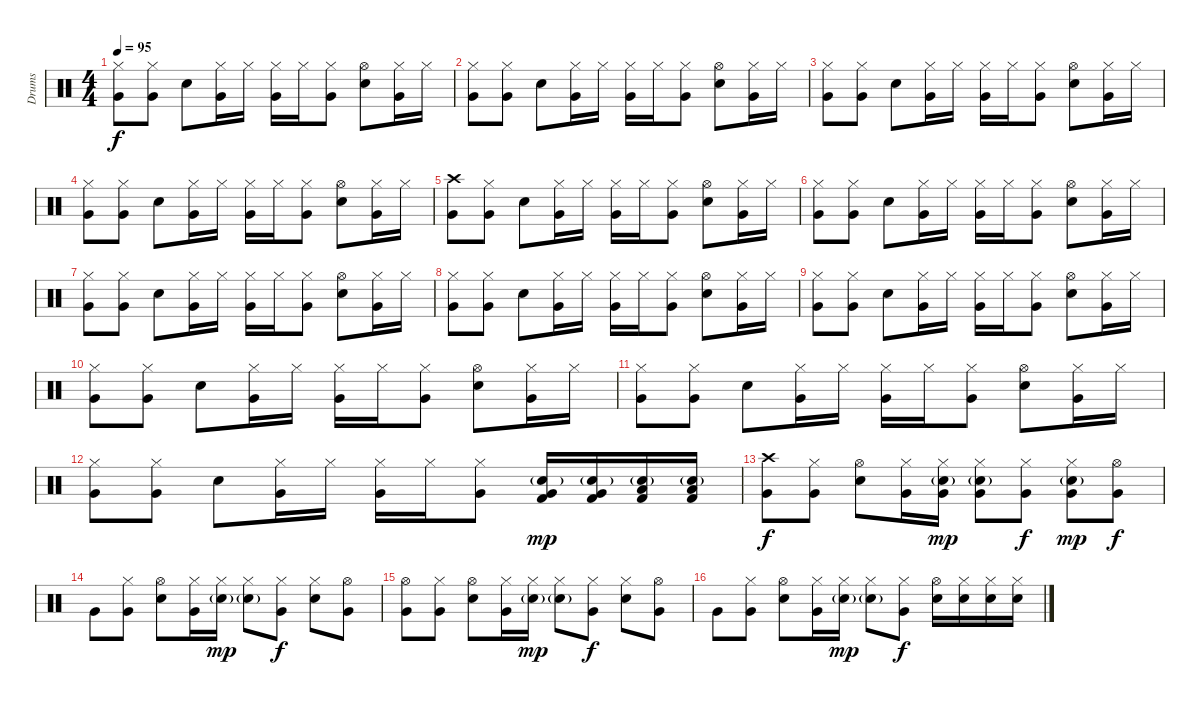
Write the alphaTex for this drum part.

\track ("Drums" "Drums") {instrument percussion}
\staff {score}
\articulation defaults
\ts (4 4)
\tempo 95
\clef neutral
\ks c
("Hi-Hat (closed)" "Very Low Tom (hit)").8{dy f} ("Hi-Hat (closed)" "Very Low Tom (hit)").8 "Electric Snare (hit)".8 ("Hi-Hat (closed)" "Very Low Tom (hit)").16 "Hi-Hat (closed)".16 ("Hi-Hat (closed)" "Very Low Tom (hit)").16 "Hi-Hat (closed)".16 ("Hi-Hat (closed)" "Very Low Tom (hit)").8 ("Hi-Hat (open)" "Electric Snare (hit)").8 ("Hi-Hat (closed)" "Very Low Tom (hit)").16 "Hi-Hat (closed)".16 |
("Hi-Hat (closed)" "Very Low Tom (hit)").8 ("Hi-Hat (closed)" "Very Low Tom (hit)").8 "Electric Snare (hit)".8 ("Hi-Hat (closed)" "Very Low Tom (hit)").16 "Hi-Hat (closed)".16 ("Hi-Hat (closed)" "Very Low Tom (hit)").16 "Hi-Hat (closed)".16 ("Hi-Hat (closed)" "Very Low Tom (hit)").8 ("Hi-Hat (open)" "Electric Snare (hit)").8 ("Hi-Hat (closed)" "Very Low Tom (hit)").16 "Hi-Hat (closed)".16 |
("Hi-Hat (closed)" "Very Low Tom (hit)").8 ("Hi-Hat (closed)" "Very Low Tom (hit)").8 "Electric Snare (hit)".8 ("Hi-Hat (closed)" "Very Low Tom (hit)").16 "Hi-Hat (closed)".16 ("Hi-Hat (closed)" "Very Low Tom (hit)").16 "Hi-Hat (closed)".16 ("Hi-Hat (closed)" "Very Low Tom (hit)").8 ("Hi-Hat (open)" "Electric Snare (hit)").8 ("Hi-Hat (closed)" "Very Low Tom (hit)").16 "Hi-Hat (closed)".16 |
("Hi-Hat (closed)" "Very Low Tom (hit)").8 ("Hi-Hat (closed)" "Very Low Tom (hit)").8 "Electric Snare (hit)".8 ("Hi-Hat (closed)" "Very Low Tom (hit)").16 "Hi-Hat (closed)".16 ("Hi-Hat (closed)" "Very Low Tom (hit)").16 "Hi-Hat (closed)".16 ("Hi-Hat (closed)" "Very Low Tom (hit)").8 ("Hi-Hat (open)" "Electric Snare (hit)").8 ("Hi-Hat (closed)" "Very Low Tom (hit)").16 "Hi-Hat (closed)".16 |
("Crash high (hit)" "Very Low Tom (hit)").8 ("Hi-Hat (closed)" "Very Low Tom (hit)").8 "Electric Snare (hit)".8 ("Hi-Hat (closed)" "Very Low Tom (hit)").16 "Hi-Hat (closed)".16 ("Hi-Hat (closed)" "Very Low Tom (hit)").16 "Hi-Hat (closed)".16 ("Hi-Hat (closed)" "Very Low Tom (hit)").8 ("Hi-Hat (open)" "Electric Snare (hit)").8 ("Hi-Hat (closed)" "Very Low Tom (hit)").16 "Hi-Hat (closed)".16 |
("Hi-Hat (closed)" "Very Low Tom (hit)").8 ("Hi-Hat (closed)" "Very Low Tom (hit)").8 "Electric Snare (hit)".8 ("Hi-Hat (closed)" "Very Low Tom (hit)").16 "Hi-Hat (closed)".16 ("Hi-Hat (closed)" "Very Low Tom (hit)").16 "Hi-Hat (closed)".16 ("Hi-Hat (closed)" "Very Low Tom (hit)").8 ("Hi-Hat (open)" "Electric Snare (hit)").8 ("Hi-Hat (closed)" "Very Low Tom (hit)").16 "Hi-Hat (closed)".16 |
("Hi-Hat (closed)" "Very Low Tom (hit)").8 ("Hi-Hat (closed)" "Very Low Tom (hit)").8 "Electric Snare (hit)".8 ("Hi-Hat (closed)" "Very Low Tom (hit)").16 "Hi-Hat (closed)".16 ("Hi-Hat (closed)" "Very Low Tom (hit)").16 "Hi-Hat (closed)".16 ("Hi-Hat (closed)" "Very Low Tom (hit)").8 ("Hi-Hat (open)" "Electric Snare (hit)").8 ("Hi-Hat (closed)" "Very Low Tom (hit)").16 "Hi-Hat (closed)".16 |
("Hi-Hat (closed)" "Very Low Tom (hit)").8 ("Hi-Hat (closed)" "Very Low Tom (hit)").8 "Electric Snare (hit)".8 ("Hi-Hat (closed)" "Very Low Tom (hit)").16 "Hi-Hat (closed)".16 ("Hi-Hat (closed)" "Very Low Tom (hit)").16 "Hi-Hat (closed)".16 ("Hi-Hat (closed)" "Very Low Tom (hit)").8 ("Hi-Hat (open)" "Electric Snare (hit)").8 ("Hi-Hat (closed)" "Very Low Tom (hit)").16 "Hi-Hat (closed)".16 |
("Hi-Hat (closed)" "Very Low Tom (hit)").8 ("Hi-Hat (closed)" "Very Low Tom (hit)").8 "Electric Snare (hit)".8 ("Hi-Hat (closed)" "Very Low Tom (hit)").16 "Hi-Hat (closed)".16 ("Hi-Hat (closed)" "Very Low Tom (hit)").16 "Hi-Hat (closed)".16 ("Hi-Hat (closed)" "Very Low Tom (hit)").8 ("Hi-Hat (open)" "Electric Snare (hit)").8 ("Hi-Hat (closed)" "Very Low Tom (hit)").16 "Hi-Hat (closed)".16 |
("Hi-Hat (closed)" "Very Low Tom (hit)").8 ("Hi-Hat (closed)" "Very Low Tom (hit)").8 "Electric Snare (hit)".8 ("Hi-Hat (closed)" "Very Low Tom (hit)").16 "Hi-Hat (closed)".16 ("Hi-Hat (closed)" "Very Low Tom (hit)").16 "Hi-Hat (closed)".16 ("Hi-Hat (closed)" "Very Low Tom (hit)").8 ("Hi-Hat (open)" "Electric Snare (hit)").8 ("Hi-Hat (closed)" "Very Low Tom (hit)").16 "Hi-Hat (closed)".16 |
("Hi-Hat (closed)" "Very Low Tom (hit)").8 ("Hi-Hat (closed)" "Very Low Tom (hit)").8 "Electric Snare (hit)".8 ("Hi-Hat (closed)" "Very Low Tom (hit)").16 "Hi-Hat (closed)".16 ("Hi-Hat (closed)" "Very Low Tom (hit)").16 "Hi-Hat (closed)".16 ("Hi-Hat (closed)" "Very Low Tom (hit)").8 ("Hi-Hat (open)" "Electric Snare (hit)").8 ("Hi-Hat (closed)" "Very Low Tom (hit)").16 "Hi-Hat (closed)".16 |
("Hi-Hat (closed)" "Very Low Tom (hit)").8 ("Hi-Hat (closed)" "Very Low Tom (hit)").8 "Electric Snare (hit)".8 ("Hi-Hat (closed)" "Very Low Tom (hit)").16 "Hi-Hat (closed)".16 ("Hi-Hat (closed)" "Very Low Tom (hit)").16 "Hi-Hat (closed)".16 ("Hi-Hat (closed)" "Very Low Tom (hit)").8 ("Very Low Tom (hit)" "Kick (hit) 2" "Electric Snare (hit)"{g}).16{dy mp} ("Very Low Tom (hit)" "Kick (hit) 2" "Electric Snare (hit)"{g}).16 ("Low Floor Tom (hit)" "Kick (hit) 2" "Electric Snare (hit)"{g}).16 ("Low Floor Tom (hit)" "Kick (hit) 2" "Electric Snare (hit)"{g}).16 |
("Crash high (hit)" "Very Low Tom (hit)").8{dy f} ("Hi-Hat (closed)" "Very Low Tom (hit)").8 ("Hi-Hat (open)" "Electric Snare (hit)").8 ("Hi-Hat (closed)" "Very Low Tom (hit)").16 ("Hi-Hat (closed)" "Very Low Tom (hit)" "Electric Snare (hit)"{g}).16{dy mp} ("Hi-Hat (closed)" "Very Low Tom (hit)" "Electric Snare (hit)"{g}).8 ("Hi-Hat (closed)" "Very Low Tom (hit)").8{dy f} ("Hi-Hat (closed)" "Very Low Tom (hit)" "Electric Snare (hit)"{g}).8{dy mp} ("Hi-Hat (open)" "Very Low Tom (hit)").8{dy f} |
"Very Low Tom (hit)".8 ("Hi-Hat (closed)" "Very Low Tom (hit)").8 ("Hi-Hat (open)" "Electric Snare (hit)").8 ("Hi-Hat (closed)" "Very Low Tom (hit)").16 ("Hi-Hat (closed)" "Electric Snare (hit)"{g}).16{dy mp} ("Hi-Hat (closed)" "Electric Snare (hit)"{g}).8 ("Hi-Hat (closed)" "Very Low Tom (hit)").8{dy f} ("Hi-Hat (closed)" "Electric Snare (hit)").8 ("Hi-Hat (open)" "Very Low Tom (hit)").8 |
("Hi-Hat (open)" "Very Low Tom (hit)").8 ("Hi-Hat (closed)" "Very Low Tom (hit)").8 ("Hi-Hat (open)" "Electric Snare (hit)").8 ("Hi-Hat (closed)" "Very Low Tom (hit)").16 ("Hi-Hat (closed)" "Electric Snare (hit)"{g}).16{dy mp} ("Hi-Hat (closed)" "Electric Snare (hit)"{g}).8 ("Hi-Hat (closed)" "Very Low Tom (hit)").8{dy f} ("Hi-Hat (closed)" "Electric Snare (hit)").8 ("Hi-Hat (open)" "Very Low Tom (hit)").8 |
"Very Low Tom (hit)".8 ("Hi-Hat (closed)" "Very Low Tom (hit)").8 ("Hi-Hat (open)" "Electric Snare (hit)").8 ("Hi-Hat (closed)" "Very Low Tom (hit)").16 ("Hi-Hat (closed)" "Electric Snare (hit)"{g}).16{dy mp} ("Hi-Hat (closed)" "Electric Snare (hit)"{g}).8 ("Hi-Hat (closed)" "Very Low Tom (hit)").8{dy f} ("Hi-Hat (open)" "Electric Snare (hit)").16 ("Hi-Hat (closed)" "Electric Snare (hit)").16 ("Hi-Hat (closed)" "Electric Snare (hit)").16 ("Hi-Hat (closed)" "Electric Snare (hit)").16
